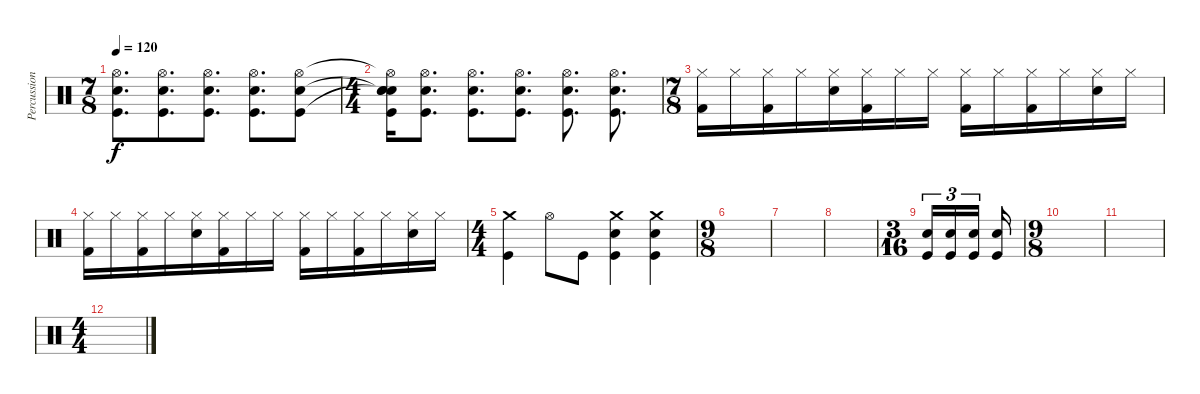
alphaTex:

\track ("Percussion" "Percussion") {instrument percussion}
\staff {score}
\articulation defaults
\ts (7 8)
\tempo 120
\clef neutral
\ks c
("Hi-Hat (open)" "Electric Snare (hit)" "Kick (hit)").8{d dy f} ("Hi-Hat (open)" "Electric Snare (hit)" "Kick (hit)").8{d} ("Hi-Hat (open)" "Electric Snare (hit)" "Kick (hit)").8{d} ("Hi-Hat (open)" "Electric Snare (hit)" "Kick (hit)").8{d} ("Hi-Hat (open)" "Electric Snare (hit)" "Kick (hit)").8 |
\ts (4 4)
("Hi-Hat (open)"{t} "Snare (hit)"{t} "Electric Snare (hit)"{t} "Snare (hit)" "Kick (hit)").16 ("Hi-Hat (open)" "Electric Snare (hit)" "Kick (hit)").8{d} ("Hi-Hat (open)" "Electric Snare (hit)" "Kick (hit)").8{d} ("Hi-Hat (open)" "Electric Snare (hit)" "Kick (hit)").8{d} ("Hi-Hat (open)" "Electric Snare (hit)" "Kick (hit)").8{d} ("Hi-Hat (open)" "Electric Snare (hit)" "Kick (hit)").8{d} |
\ts (7 8)
("Hi-Hat (closed)" "Kick (hit) 2").16 "Hi-Hat (closed)".16 ("Hi-Hat (closed)" "Kick (hit) 2").16 "Hi-Hat (closed)".16 ("Hi-Hat (closed)" "Snare (hit) 2").16 ("Hi-Hat (closed)" "Kick (hit) 2").16 "Hi-Hat (closed)".16 "Hi-Hat (closed)".16 ("Hi-Hat (closed)" "Kick (hit) 2").16 "Hi-Hat (closed)".16 ("Hi-Hat (closed)" "Kick (hit) 2").16 "Hi-Hat (closed)".16 ("Hi-Hat (closed)" "Snare (hit) 2").16 "Hi-Hat (closed)".16 |
("Hi-Hat (closed)" "Kick (hit) 2").16 "Hi-Hat (closed)".16 ("Hi-Hat (closed)" "Kick (hit) 2").16 "Hi-Hat (closed)".16 ("Hi-Hat (closed)" "Snare (hit) 2").16 ("Hi-Hat (closed)" "Kick (hit) 2").16 "Hi-Hat (closed)".16 "Hi-Hat (closed)".16 ("Hi-Hat (closed)" "Kick (hit) 2").16 "Hi-Hat (closed)".16 ("Hi-Hat (closed)" "Kick (hit) 2").16 "Hi-Hat (closed)".16 ("Hi-Hat (closed)" "Snare (hit) 2").16 "Hi-Hat (closed)".16 |
\ts (4 4)
("Crash medium (hit)" "Kick (hit)").4 "Hi-Hat (open)".8 "Kick (hit)".8 ("Crash medium (hit)" "Snare (hit) 2" "Kick (hit)").4 ("Crash medium (hit)" "Snare (hit) 2" "Kick (hit)").4 |
\ts (9 8)
|
|
|
\ts (3 16)
("Snare (hit) 2" "Kick (hit)").16{tu (3 2)} ("Snare (hit) 2" "Kick (hit)").16{tu (3 2)} ("Snare (hit) 2" "Kick (hit)").16{tu (3 2)} ("Snare (hit) 2" "Kick (hit)").16 |
\ts (9 8)
|
|
\ts (4 4)
